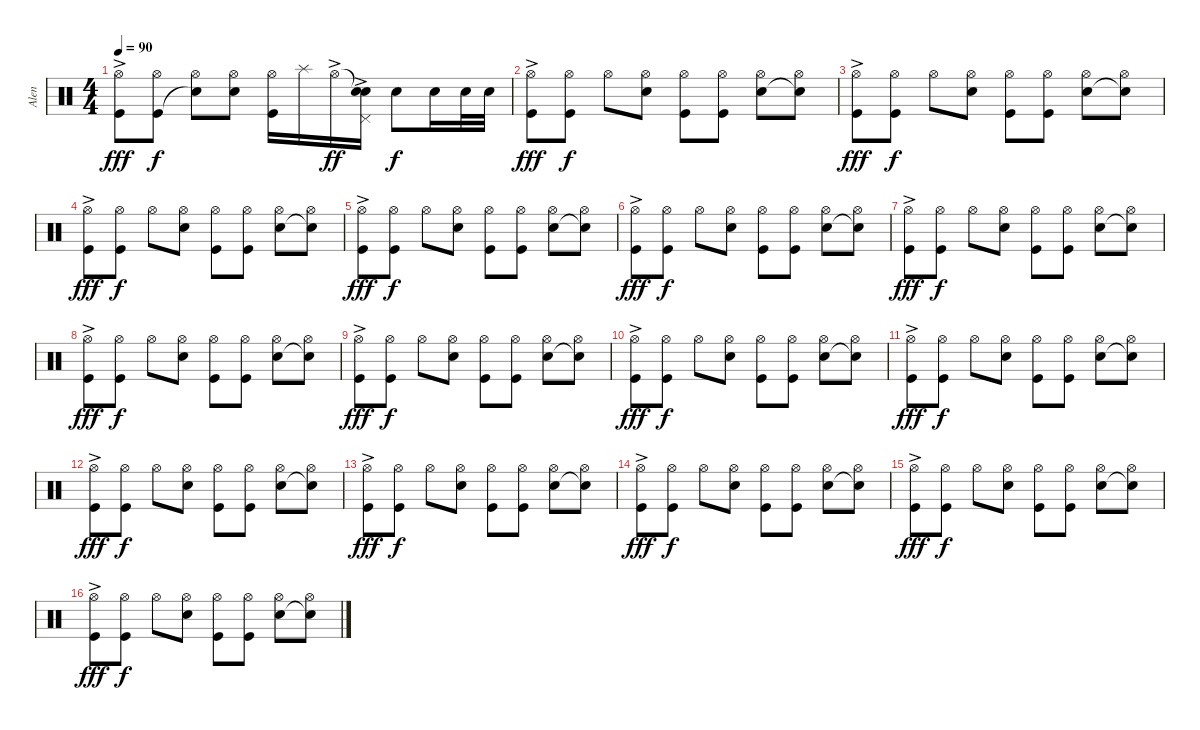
\track ("Alen" "Alen") {instrument percussion}
\staff {score}
\articulation defaults
\ts (4 4)
\tempo 90
\clef neutral
\ks c
("Kick (hit)"{ac} "Hi-Hat (open)").8{dy fff} ("Kick (hit)" "Hi-Hat (open)").8{dy f} ("Snare (hit)"{t} "Hi-Hat (open)").8 ("Snare (hit) 2" "Hi-Hat (open)").8 ("Kick (hit)" "Hi-Hat (open)").16 "Splash (hit)".16 "Hi-Hat (open)"{ac}.16{dy ff} ("Snare (hit)"{t} "Pedal Hi-Hat (hit)"{ac} "Snare (hit) 2"{t}).16 "Snare (hit) 2".8{dy f} "Snare (hit) 2".16 "Snare (hit) 2".32 "Snare (hit) 2".32 |
("Kick (hit)"{ac} "Hi-Hat (open)").8{dy fff} ("Kick (hit)" "Hi-Hat (open)").8{dy f} "Hi-Hat (open)".8 ("Electric Snare (hit)" "Hi-Hat (open)").8 ("Kick (hit)" "Hi-Hat (open)").8 ("Kick (hit)" "Hi-Hat (open)").8 ("Electric Snare (hit)" "Hi-Hat (open)").8 ("Electric Snare (hit)"{t} "Hi-Hat (open)").8 |
("Kick (hit)"{ac} "Hi-Hat (open)").8{dy fff} ("Kick (hit)" "Hi-Hat (open)").8{dy f} "Hi-Hat (open)".8 ("Electric Snare (hit)" "Hi-Hat (open)").8 ("Kick (hit)" "Hi-Hat (open)").8 ("Kick (hit)" "Hi-Hat (open)").8 ("Electric Snare (hit)" "Hi-Hat (open)").8 ("Electric Snare (hit)"{t} "Hi-Hat (open)").8 |
("Kick (hit)"{ac} "Hi-Hat (open)").8{dy fff} ("Kick (hit)" "Hi-Hat (open)").8{dy f} "Hi-Hat (open)".8 ("Electric Snare (hit)" "Hi-Hat (open)").8 ("Kick (hit)" "Hi-Hat (open)").8 ("Kick (hit)" "Hi-Hat (open)").8 ("Electric Snare (hit)" "Hi-Hat (open)").8 ("Electric Snare (hit)"{t} "Hi-Hat (open)").8 |
("Kick (hit)"{ac} "Hi-Hat (open)").8{dy fff} ("Kick (hit)" "Hi-Hat (open)").8{dy f} "Hi-Hat (open)".8 ("Electric Snare (hit)" "Hi-Hat (open)").8 ("Kick (hit)" "Hi-Hat (open)").8 ("Kick (hit)" "Hi-Hat (open)").8 ("Electric Snare (hit)" "Hi-Hat (open)").8 ("Electric Snare (hit)"{t} "Hi-Hat (open)").8 |
("Kick (hit)"{ac} "Hi-Hat (open)").8{dy fff} ("Kick (hit)" "Hi-Hat (open)").8{dy f} "Hi-Hat (open)".8 ("Electric Snare (hit)" "Hi-Hat (open)").8 ("Kick (hit)" "Hi-Hat (open)").8 ("Kick (hit)" "Hi-Hat (open)").8 ("Electric Snare (hit)" "Hi-Hat (open)").8 ("Electric Snare (hit)"{t} "Hi-Hat (open)").8 |
("Kick (hit)"{ac} "Hi-Hat (open)").8{dy fff} ("Kick (hit)" "Hi-Hat (open)").8{dy f} "Hi-Hat (open)".8 ("Electric Snare (hit)" "Hi-Hat (open)").8 ("Kick (hit)" "Hi-Hat (open)").8 ("Kick (hit)" "Hi-Hat (open)").8 ("Electric Snare (hit)" "Hi-Hat (open)").8 ("Electric Snare (hit)"{t} "Hi-Hat (open)").8 |
("Kick (hit)"{ac} "Hi-Hat (open)").8{dy fff} ("Kick (hit)" "Hi-Hat (open)").8{dy f} "Hi-Hat (open)".8 ("Electric Snare (hit)" "Hi-Hat (open)").8 ("Kick (hit)" "Hi-Hat (open)").8 ("Kick (hit)" "Hi-Hat (open)").8 ("Electric Snare (hit)" "Hi-Hat (open)").8 ("Electric Snare (hit)"{t} "Hi-Hat (open)").8 |
("Kick (hit)"{ac} "Hi-Hat (open)").8{dy fff} ("Kick (hit)" "Hi-Hat (open)").8{dy f} "Hi-Hat (open)".8 ("Electric Snare (hit)" "Hi-Hat (open)").8 ("Kick (hit)" "Hi-Hat (open)").8 ("Kick (hit)" "Hi-Hat (open)").8 ("Electric Snare (hit)" "Hi-Hat (open)").8 ("Electric Snare (hit)"{t} "Hi-Hat (open)").8 |
("Kick (hit)"{ac} "Hi-Hat (open)").8{dy fff} ("Kick (hit)" "Hi-Hat (open)").8{dy f} "Hi-Hat (open)".8 ("Electric Snare (hit)" "Hi-Hat (open)").8 ("Kick (hit)" "Hi-Hat (open)").8 ("Kick (hit)" "Hi-Hat (open)").8 ("Electric Snare (hit)" "Hi-Hat (open)").8 ("Electric Snare (hit)"{t} "Hi-Hat (open)").8 |
("Kick (hit)"{ac} "Hi-Hat (open)").8{dy fff} ("Kick (hit)" "Hi-Hat (open)").8{dy f} "Hi-Hat (open)".8 ("Electric Snare (hit)" "Hi-Hat (open)").8 ("Kick (hit)" "Hi-Hat (open)").8 ("Kick (hit)" "Hi-Hat (open)").8 ("Electric Snare (hit)" "Hi-Hat (open)").8 ("Electric Snare (hit)"{t} "Hi-Hat (open)").8 |
("Kick (hit)"{ac} "Hi-Hat (open)").8{dy fff} ("Kick (hit)" "Hi-Hat (open)").8{dy f} "Hi-Hat (open)".8 ("Electric Snare (hit)" "Hi-Hat (open)").8 ("Kick (hit)" "Hi-Hat (open)").8 ("Kick (hit)" "Hi-Hat (open)").8 ("Electric Snare (hit)" "Hi-Hat (open)").8 ("Electric Snare (hit)"{t} "Hi-Hat (open)").8 |
("Kick (hit)"{ac} "Hi-Hat (open)").8{dy fff} ("Kick (hit)" "Hi-Hat (open)").8{dy f} "Hi-Hat (open)".8 ("Electric Snare (hit)" "Hi-Hat (open)").8 ("Kick (hit)" "Hi-Hat (open)").8 ("Kick (hit)" "Hi-Hat (open)").8 ("Electric Snare (hit)" "Hi-Hat (open)").8 ("Electric Snare (hit)"{t} "Hi-Hat (open)").8 |
("Kick (hit)"{ac} "Hi-Hat (open)").8{dy fff} ("Kick (hit)" "Hi-Hat (open)").8{dy f} "Hi-Hat (open)".8 ("Electric Snare (hit)" "Hi-Hat (open)").8 ("Kick (hit)" "Hi-Hat (open)").8 ("Kick (hit)" "Hi-Hat (open)").8 ("Electric Snare (hit)" "Hi-Hat (open)").8 ("Electric Snare (hit)"{t} "Hi-Hat (open)").8 |
("Kick (hit)"{ac} "Hi-Hat (open)").8{dy fff} ("Kick (hit)" "Hi-Hat (open)").8{dy f} "Hi-Hat (open)".8 ("Electric Snare (hit)" "Hi-Hat (open)").8 ("Kick (hit)" "Hi-Hat (open)").8 ("Kick (hit)" "Hi-Hat (open)").8 ("Electric Snare (hit)" "Hi-Hat (open)").8 ("Electric Snare (hit)"{t} "Hi-Hat (open)").8 |
("Kick (hit)"{ac} "Hi-Hat (open)").8{dy fff} ("Kick (hit)" "Hi-Hat (open)").8{dy f} "Hi-Hat (open)".8 ("Electric Snare (hit)" "Hi-Hat (open)").8 ("Kick (hit)" "Hi-Hat (open)").8 ("Kick (hit)" "Hi-Hat (open)").8 ("Electric Snare (hit)" "Hi-Hat (open)").8 ("Electric Snare (hit)"{t} "Hi-Hat (open)").8
